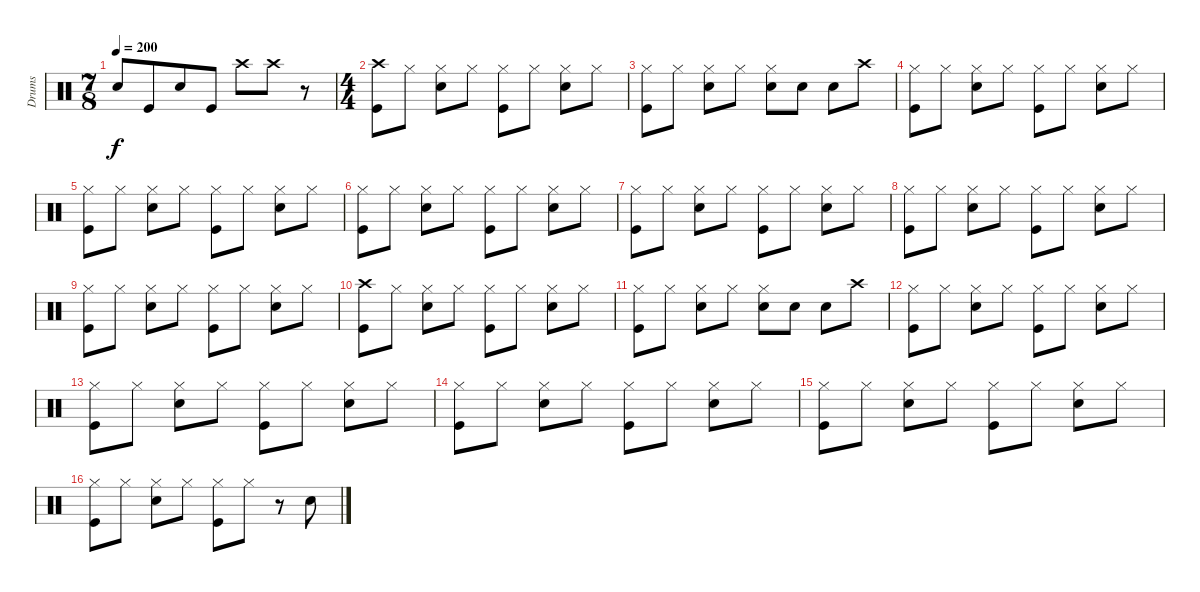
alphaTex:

\track ("Drums" "Drums") {instrument percussion}
\staff {score}
\articulation defaults
\ts (7 8)
\tempo 200
\clef neutral
\ks c "Snare (hit) 2".8{dy f} "Kick (hit)".8 "Snare (hit) 2".8 "Kick (hit)".8 "Crash high (hit)".8 "Crash high (hit)".8
r.8 |
\ts (4 4)
("Crash high (hit)" "Kick (hit)").8 "Hi-Hat (closed)".8 ("Hi-Hat (closed)" "Snare (hit) 2").8 "Hi-Hat (closed)".8 ("Hi-Hat (closed)" "Kick (hit)").8 "Hi-Hat (closed)".8 ("Hi-Hat (closed)" "Snare (hit) 2").8 "Hi-Hat (closed)".8 |
("Hi-Hat (closed)" "Kick (hit)").8 "Hi-Hat (closed)".8 ("Hi-Hat (closed)" "Snare (hit) 2").8 "Hi-Hat (closed)".8 ("Hi-Hat (closed)" "Snare (hit) 2").8 "Snare (hit) 2".8 "Snare (hit) 2".8 "Crash high (hit)".8 |
("Hi-Hat (closed)" "Kick (hit)").8 "Hi-Hat (closed)".8 ("Hi-Hat (closed)" "Snare (hit) 2").8 "Hi-Hat (closed)".8 ("Hi-Hat (closed)" "Kick (hit)").8 "Hi-Hat (closed)".8 ("Hi-Hat (closed)" "Snare (hit) 2").8 "Hi-Hat (closed)".8 |
("Hi-Hat (closed)" "Kick (hit)").8 "Hi-Hat (closed)".8 ("Hi-Hat (closed)" "Snare (hit) 2").8 "Hi-Hat (closed)".8 ("Hi-Hat (closed)" "Kick (hit)").8 "Hi-Hat (closed)".8 ("Hi-Hat (closed)" "Snare (hit) 2").8 "Hi-Hat (closed)".8 |
("Hi-Hat (closed)" "Kick (hit)").8 "Hi-Hat (closed)".8 ("Hi-Hat (closed)" "Snare (hit) 2").8 "Hi-Hat (closed)".8 ("Hi-Hat (closed)" "Kick (hit)").8 "Hi-Hat (closed)".8 ("Hi-Hat (closed)" "Snare (hit) 2").8 "Hi-Hat (closed)".8 |
("Hi-Hat (closed)" "Kick (hit)").8 "Hi-Hat (closed)".8 ("Hi-Hat (closed)" "Snare (hit) 2").8 "Hi-Hat (closed)".8 ("Hi-Hat (closed)" "Kick (hit)").8 "Hi-Hat (closed)".8 ("Hi-Hat (closed)" "Snare (hit) 2").8 "Hi-Hat (closed)".8 |
("Hi-Hat (closed)" "Kick (hit)").8 "Hi-Hat (closed)".8 ("Hi-Hat (closed)" "Snare (hit) 2").8 "Hi-Hat (closed)".8 ("Hi-Hat (closed)" "Kick (hit)").8 "Hi-Hat (closed)".8 ("Hi-Hat (closed)" "Snare (hit) 2").8 "Hi-Hat (closed)".8 |
("Hi-Hat (closed)" "Kick (hit)").8 "Hi-Hat (closed)".8 ("Hi-Hat (closed)" "Snare (hit) 2").8 "Hi-Hat (closed)".8 ("Hi-Hat (closed)" "Kick (hit)").8 "Hi-Hat (closed)".8 ("Hi-Hat (closed)" "Snare (hit) 2").8 "Hi-Hat (closed)".8 |
("Crash high (hit)" "Kick (hit)").8 "Hi-Hat (closed)".8 ("Hi-Hat (closed)" "Snare (hit) 2").8 "Hi-Hat (closed)".8 ("Hi-Hat (closed)" "Kick (hit)").8 "Hi-Hat (closed)".8 ("Hi-Hat (closed)" "Snare (hit) 2").8 "Hi-Hat (closed)".8 |
("Hi-Hat (closed)" "Kick (hit)").8 "Hi-Hat (closed)".8 ("Hi-Hat (closed)" "Snare (hit) 2").8 "Hi-Hat (closed)".8 ("Hi-Hat (closed)" "Snare (hit) 2").8 "Snare (hit) 2".8 "Snare (hit) 2".8 "Crash high (hit)".8 |
("Hi-Hat (closed)" "Kick (hit)").8 "Hi-Hat (closed)".8 ("Hi-Hat (closed)" "Snare (hit) 2").8 "Hi-Hat (closed)".8 ("Hi-Hat (closed)" "Kick (hit)").8 "Hi-Hat (closed)".8 ("Hi-Hat (closed)" "Snare (hit) 2").8 "Hi-Hat (closed)".8 |
("Hi-Hat (closed)" "Kick (hit)").8 "Hi-Hat (closed)".8 ("Hi-Hat (closed)" "Snare (hit) 2").8 "Hi-Hat (closed)".8 ("Hi-Hat (closed)" "Kick (hit)").8 "Hi-Hat (closed)".8 ("Hi-Hat (closed)" "Snare (hit) 2").8 "Hi-Hat (closed)".8 |
("Hi-Hat (closed)" "Kick (hit)").8 "Hi-Hat (closed)".8 ("Hi-Hat (closed)" "Snare (hit) 2").8 "Hi-Hat (closed)".8 ("Hi-Hat (closed)" "Kick (hit)").8 "Hi-Hat (closed)".8 ("Hi-Hat (closed)" "Snare (hit) 2").8 "Hi-Hat (closed)".8 |
("Hi-Hat (closed)" "Kick (hit)").8 "Hi-Hat (closed)".8 ("Hi-Hat (closed)" "Snare (hit) 2").8 "Hi-Hat (closed)".8 ("Hi-Hat (closed)" "Kick (hit)").8 "Hi-Hat (closed)".8 ("Hi-Hat (closed)" "Snare (hit) 2").8 "Hi-Hat (closed)".8 |
("Hi-Hat (closed)" "Kick (hit)").8 "Hi-Hat (closed)".8 ("Hi-Hat (closed)" "Snare (hit) 2").8 "Hi-Hat (closed)".8 ("Hi-Hat (closed)" "Kick (hit)").8 "Hi-Hat (closed)".8 r.8 "Snare (hit) 2".8
